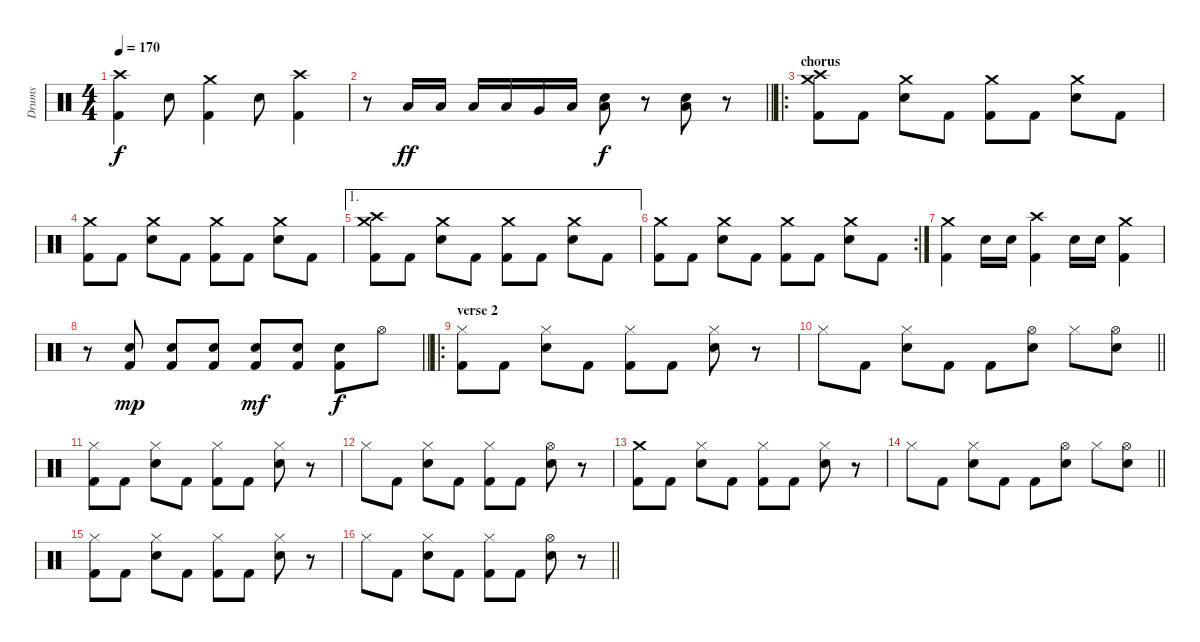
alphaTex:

\track ("Drums" "Drums") {instrument percussion}
\staff {score}
\articulation defaults
\ts (4 4)
\tempo 170
\clef neutral
\ks c
("Crash high (hit)" "Kick (hit) 2").4{dy f} "Electric Snare (hit)".8 ("Crash medium (hit)" "Kick (hit) 2").4 "Electric Snare (hit)".8 ("Crash high (hit)" "Kick (hit) 2").4 |
\barLineRight lightlight
r.8 "Low Tom (hit)".16{dy ff} "Low Tom (hit)".16 "Low Tom (hit)".16 "Low Tom (hit)".16 "Very Low Tom (hit)".16 "Low Floor Tom (hit)".16 ("Low Floor Tom (hit)" "Electric Snare (hit)").8{dy f} r.8 ("Low Floor Tom (hit)" "Electric Snare (hit)").8 r.8 |
\ro
\section ("" "chorus")
("Crash high (hit)" "Crash medium (hit)" "Kick (hit) 2").8 "Kick (hit) 2".8 ("Crash medium (hit)" "Electric Snare (hit)").8 "Kick (hit) 2".8 ("Crash medium (hit)" "Kick (hit) 2").8 "Kick (hit) 2".8 ("Crash medium (hit)" "Electric Snare (hit)").8 "Kick (hit) 2".8 |
("Crash medium (hit)" "Kick (hit) 2").8 "Kick (hit) 2".8 ("Crash medium (hit)" "Electric Snare (hit)").8 "Kick (hit) 2".8 ("Crash medium (hit)" "Kick (hit) 2").8 "Kick (hit) 2".8 ("Crash medium (hit)" "Electric Snare (hit)").8 "Kick (hit) 2".8 |
\ae 1
("Crash high (hit)" "Crash medium (hit)" "Kick (hit) 2").8 "Kick (hit) 2".8 ("Crash medium (hit)" "Electric Snare (hit)").8 "Kick (hit) 2".8 ("Crash medium (hit)" "Kick (hit) 2").8 "Kick (hit) 2".8 ("Crash medium (hit)" "Electric Snare (hit)").8 "Kick (hit) 2".8 |
\rc 2
("Crash medium (hit)" "Kick (hit) 2").8 "Kick (hit) 2".8 ("Crash medium (hit)" "Electric Snare (hit)").8 "Kick (hit) 2".8 ("Crash medium (hit)" "Kick (hit) 2").8 "Kick (hit) 2".8 ("Crash medium (hit)" "Electric Snare (hit)").8 "Kick (hit) 2".8 |
("Crash medium (hit)" "Kick (hit) 2").4 "Electric Snare (hit)".16 "Electric Snare (hit)".16 ("Crash high (hit)" "Kick (hit) 2").4 "Electric Snare (hit)".16 "Electric Snare (hit)".16 ("Crash medium (hit)" "Kick (hit) 2").4 |
\barLineRight lightlight
r.8 ("Electric Snare (hit)" "Kick (hit) 2").8{dy mp} ("Electric Snare (hit)" "Kick (hit) 2").8 ("Electric Snare (hit)" "Kick (hit) 2").8 ("Electric Snare (hit)" "Kick (hit) 2").8{dy mf} ("Electric Snare (hit)" "Kick (hit) 2").8 ("Electric Snare (hit)" "Kick (hit) 2").8{dy f} "Hi-Hat (open)".8 |
\ro
\section ("" "verse 2")
("Hi-Hat (closed)" "Kick (hit) 2").8 "Kick (hit) 2".8 ("Hi-Hat (closed)" "Electric Snare (hit)").8 "Kick (hit) 2".8 ("Hi-Hat (closed)" "Kick (hit) 2").8 "Kick (hit) 2".8 ("Hi-Hat (closed)" "Electric Snare (hit)").8 r.8 |
\barLineRight lightlight "Hi-Hat (closed)".8 "Kick (hit) 2".8
("Hi-Hat (closed)" "Electric Snare (hit)").8 "Kick (hit) 2".8 "Kick (hit) 2".8 ("Hi-Hat (open)" "Electric Snare (hit)").8 "Hi-Hat (closed)".8 ("Hi-Hat (open)" "Electric Snare (hit)").8 |
("Hi-Hat (closed)" "Kick (hit) 2").8 "Kick (hit) 2".8 ("Hi-Hat (closed)" "Electric Snare (hit)").8 "Kick (hit) 2".8 ("Hi-Hat (closed)" "Kick (hit) 2").8 "Kick (hit) 2".8 ("Hi-Hat (closed)" "Electric Snare (hit)").8 r.8 |
"Hi-Hat (closed)".8 "Kick (hit) 2".8 ("Hi-Hat (closed)" "Electric Snare (hit)").8 "Kick (hit) 2".8 ("Hi-Hat (closed)" "Kick (hit) 2").8 "Kick (hit) 2".8 ("Hi-Hat (open)" "Electric Snare (hit)").8 r.8 |
("Crash medium (hit)" "Kick (hit) 2").8 "Kick (hit) 2".8 ("Hi-Hat (closed)" "Electric Snare (hit)").8 "Kick (hit) 2".8 ("Hi-Hat (closed)" "Kick (hit) 2").8 "Kick (hit) 2".8 ("Hi-Hat (closed)" "Electric Snare (hit)").8 r.8 |
\barLineRight lightlight "Hi-Hat (closed)".8 "Kick (hit) 2".8
("Hi-Hat (closed)" "Electric Snare (hit)").8 "Kick (hit) 2".8 "Kick (hit) 2".8 ("Hi-Hat (open)" "Electric Snare (hit)").8 "Hi-Hat (closed)".8 ("Hi-Hat (open)" "Electric Snare (hit)").8 |
("Hi-Hat (closed)" "Kick (hit) 2").8 "Kick (hit) 2".8 ("Hi-Hat (closed)" "Electric Snare (hit)").8 "Kick (hit) 2".8 ("Hi-Hat (closed)" "Kick (hit) 2").8 "Kick (hit) 2".8 ("Hi-Hat (closed)" "Electric Snare (hit)").8 r.8 |
\barLineRight lightlight "Hi-Hat (closed)".8 "Kick (hit) 2".8
("Hi-Hat (closed)" "Electric Snare (hit)").8 "Kick (hit) 2".8 ("Hi-Hat (closed)" "Kick (hit) 2").8 "Kick (hit) 2".8 ("Hi-Hat (open)" "Electric Snare (hit)").8 r.8
